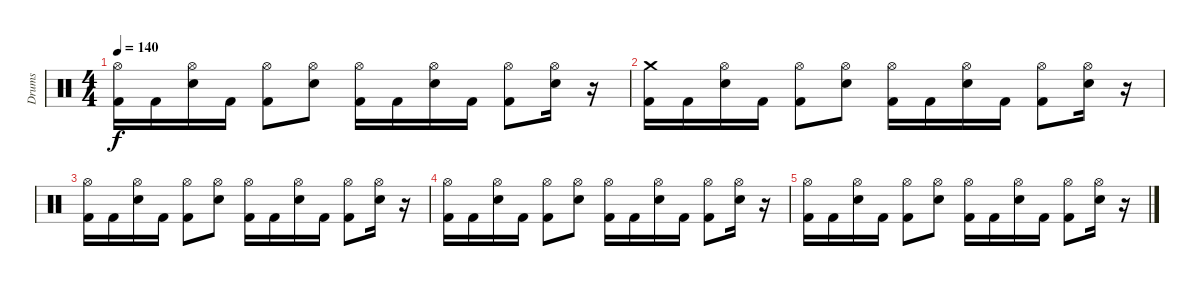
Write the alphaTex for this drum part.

\track ("Drums" "Drums") {instrument percussion}
\staff {score}
\articulation defaults
\ts (4 4)
\tempo 140
\clef neutral
\ks c
("Kick (hit) 2" "Hi-Hat (open)").16{dy f} "Kick (hit) 2".16 ("Electric Snare (hit)" "Hi-Hat (open)").16 "Kick (hit) 2".16 ("Kick (hit) 2" "Hi-Hat (open)").8 ("Electric Snare (hit)" "Hi-Hat (open)").8 ("Kick (hit) 2" "Hi-Hat (open)").16 "Kick (hit) 2".16 ("Electric Snare (hit)" "Hi-Hat (open)").16 "Kick (hit) 2".16 ("Kick (hit) 2" "Hi-Hat (open)").8 ("Electric Snare (hit)" "Hi-Hat (open)").16 r.16 |
("Kick (hit) 2" "Crash medium (hit)").16 "Kick (hit) 2".16 ("Electric Snare (hit)" "Hi-Hat (open)").16 "Kick (hit) 2".16 ("Kick (hit) 2" "Hi-Hat (open)").8 ("Electric Snare (hit)" "Hi-Hat (open)").8 ("Kick (hit) 2" "Hi-Hat (open)").16 "Kick (hit) 2".16 ("Electric Snare (hit)" "Hi-Hat (open)").16 "Kick (hit) 2".16 ("Kick (hit) 2" "Hi-Hat (open)").8 ("Electric Snare (hit)" "Hi-Hat (open)").16 r.16 |
("Kick (hit) 2" "Hi-Hat (open)").16 "Kick (hit) 2".16 ("Electric Snare (hit)" "Hi-Hat (open)").16 "Kick (hit) 2".16 ("Kick (hit) 2" "Hi-Hat (open)").8 ("Electric Snare (hit)" "Hi-Hat (open)").8 ("Kick (hit) 2" "Hi-Hat (open)").16 "Kick (hit) 2".16 ("Electric Snare (hit)" "Hi-Hat (open)").16 "Kick (hit) 2".16 ("Kick (hit) 2" "Hi-Hat (open)").8 ("Electric Snare (hit)" "Hi-Hat (open)").16 r.16 |
("Kick (hit) 2" "Hi-Hat (open)").16 "Kick (hit) 2".16 ("Electric Snare (hit)" "Hi-Hat (open)").16 "Kick (hit) 2".16 ("Kick (hit) 2" "Hi-Hat (open)").8 ("Electric Snare (hit)" "Hi-Hat (open)").8 ("Kick (hit) 2" "Hi-Hat (open)").16 "Kick (hit) 2".16 ("Electric Snare (hit)" "Hi-Hat (open)").16 "Kick (hit) 2".16 ("Kick (hit) 2" "Hi-Hat (open)").8 ("Electric Snare (hit)" "Hi-Hat (open)").16 r.16 |
("Kick (hit) 2" "Hi-Hat (open)").16 "Kick (hit) 2".16 ("Electric Snare (hit)" "Hi-Hat (open)").16 "Kick (hit) 2".16 ("Kick (hit) 2" "Hi-Hat (open)").8 ("Electric Snare (hit)" "Hi-Hat (open)").8 ("Kick (hit) 2" "Hi-Hat (open)").16 "Kick (hit) 2".16 ("Electric Snare (hit)" "Hi-Hat (open)").16 "Kick (hit) 2".16 ("Kick (hit) 2" "Hi-Hat (open)").8 ("Electric Snare (hit)" "Hi-Hat (open)").16 r.16
